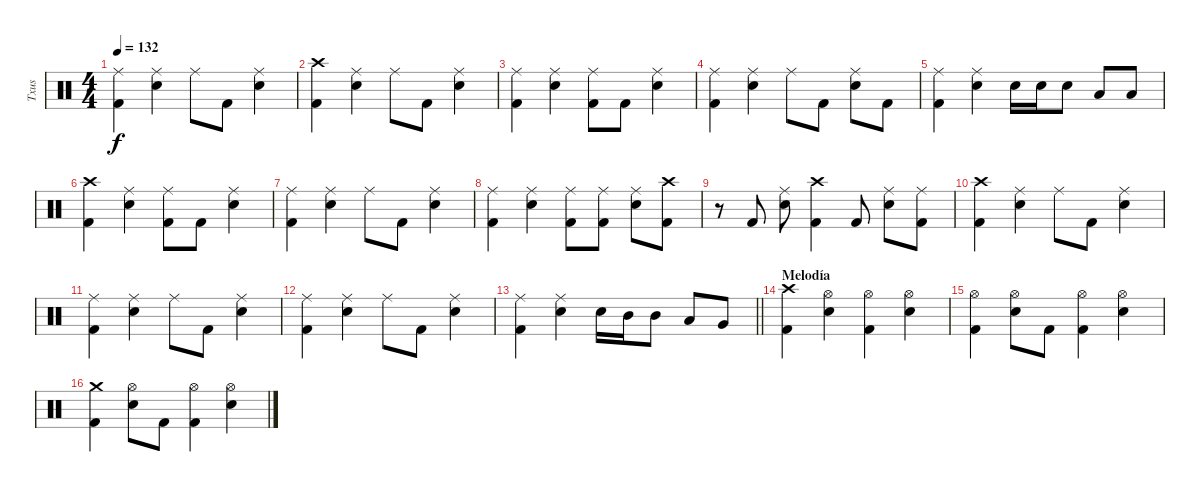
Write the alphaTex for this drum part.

\track ("Txus" "Txus") {instrument percussion}
\staff {score}
\articulation defaults
\ts (4 4)
\tempo 132
\clef neutral
\ks c
("Ride (middle)" "Kick (hit) 2").4{dy f} ("Ride (middle)" "Electric Snare (hit)").4 "Ride (middle)".8 "Kick (hit) 2".8 ("Ride (middle)" "Electric Snare (hit)").4 |
("Crash high (hit)" "Kick (hit) 2").4 ("Ride (middle)" "Electric Snare (hit)").4 "Ride (middle)".8 "Kick (hit) 2".8 ("Ride (middle)" "Electric Snare (hit)").4 |
("Ride (middle)" "Kick (hit) 2").4 ("Ride (middle)" "Electric Snare (hit)").4 ("Ride (middle)" "Kick (hit) 2").8 "Kick (hit) 2".8 ("Ride (middle)" "Electric Snare (hit)").4 |
("Ride (middle)" "Kick (hit) 2").4 ("Ride (middle)" "Electric Snare (hit)").4 "Ride (middle)".8 "Kick (hit) 2".8 ("Ride (middle)" "Electric Snare (hit)").8 "Kick (hit) 2".8 |
("Ride (middle)" "Kick (hit) 2").4 ("Ride (middle)" "Electric Snare (hit)").4 "Electric Snare (hit)".16 "Electric Snare (hit)".16 "Electric Snare (hit)".8 "Low Tom (hit)".8 "Low Tom (hit)".8 |
("Crash high (hit)" "Kick (hit) 2").4 ("Ride (middle)" "Electric Snare (hit)").4 ("Ride (middle)" "Kick (hit) 2").8 "Kick (hit) 2".8 ("Ride (middle)" "Electric Snare (hit)").4 |
("Ride (middle)" "Kick (hit) 2").4 ("Ride (middle)" "Electric Snare (hit)").4 "Ride (middle)".8 "Kick (hit) 2".8 ("Ride (middle)" "Electric Snare (hit)").4 |
("Ride (middle)" "Kick (hit) 2").4 ("Ride (middle)" "Electric Snare (hit)").4 ("Ride (middle)" "Kick (hit) 2").8 ("Ride (middle)" "Kick (hit) 2").8 ("Ride (middle)" "Electric Snare (hit)").8 ("Crash high (hit)" "Kick (hit) 2").8 |
r.8 "Kick (hit) 2".8 ("Ride (middle)" "Electric Snare (hit)").8 ("Crash high (hit)" "Kick (hit) 2").4 "Kick (hit) 2".8 ("Ride (middle)" "Electric Snare (hit)").8 ("Ride (middle)" "Kick (hit) 2").8 |
("Crash high (hit)" "Kick (hit) 2").4 ("Ride (middle)" "Electric Snare (hit)").4 "Ride (middle)".8 "Kick (hit) 2".8 ("Ride (middle)" "Electric Snare (hit)").4 |
("Ride (middle)" "Kick (hit) 2").4 ("Ride (middle)" "Electric Snare (hit)").4 "Ride (middle)".8 "Kick (hit) 2".8 ("Ride (middle)" "Electric Snare (hit)").4 |
("Ride (middle)" "Kick (hit) 2").4 ("Ride (middle)" "Electric Snare (hit)").4 "Ride (middle)".8 "Kick (hit) 2".8 ("Ride (middle)" "Electric Snare (hit)").4 |
\barLineRight lightlight
("Ride (middle)" "Kick (hit) 2").4 ("Ride (middle)" "Electric Snare (hit)").4 "Electric Snare (hit)".16 "Mid Tom (hit)".16 "Mid Tom (hit)".8 "Low Tom (hit)".8 "Very Low Tom (hit)".8 |
\section ("" "Melodía")
("Crash high (hit)" "Kick (hit) 2").4 ("Hi-Hat (open)" "Electric Snare (hit)").4 ("Hi-Hat (open)" "Kick (hit) 2").4 ("Hi-Hat (open)" "Electric Snare (hit)").4 |
("Hi-Hat (open)" "Kick (hit) 2").4 ("Hi-Hat (open)" "Electric Snare (hit)").8 "Kick (hit) 2".8 ("Hi-Hat (open)" "Kick (hit) 2").4 ("Hi-Hat (open)" "Electric Snare (hit)").4 |
("Crash medium (hit)" "Kick (hit) 2").4 ("Hi-Hat (open)" "Electric Snare (hit)").8 "Kick (hit) 2".8 ("Hi-Hat (open)" "Kick (hit) 2").4 ("Hi-Hat (open)" "Electric Snare (hit)").4
